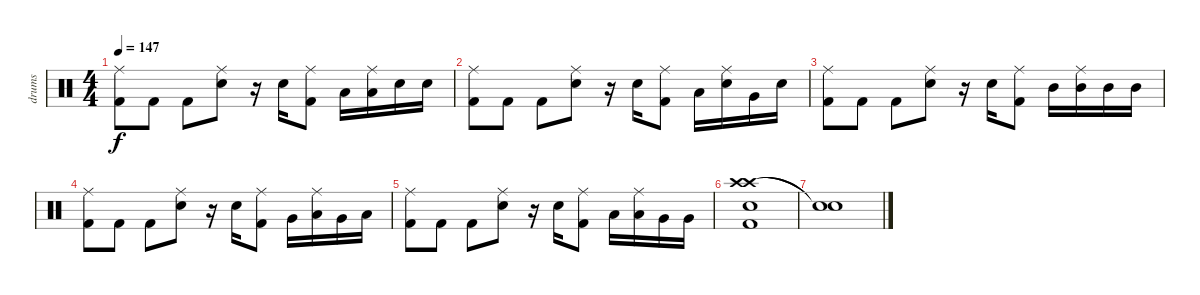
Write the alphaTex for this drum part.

\track ("drums" "drums") {instrument percussion}
\staff {score}
\articulation defaults
\ts (4 4)
\tempo 147
\clef neutral
\ks c
("Ride (middle)" "Kick (hit) 2").8{dy f} "Kick (hit) 2".8 "Kick (hit) 2".8 ("Ride (middle)" "Electric Snare (hit)").8 r.16 "Electric Snare (hit)".16 ("Ride (middle)" "Kick (hit) 2").8 "Low Tom (hit)".16 ("Ride (middle)" "Low Tom (hit)").16 "Electric Snare (hit)".16 "Electric Snare (hit)".16 |
("Ride (middle)" "Kick (hit) 2").8 "Kick (hit) 2".8 "Kick (hit) 2".8 ("Ride (middle)" "Electric Snare (hit)").8 r.16 "Electric Snare (hit)".16 ("Ride (middle)" "Kick (hit) 2").8 "Low Tom (hit)".16 ("Ride (middle)" "Electric Snare (hit)").16 "Very Low Tom (hit)".16 "Electric Snare (hit)".16 |
("Ride (middle)" "Kick (hit) 2").8 "Kick (hit) 2".8 "Kick (hit) 2".8 ("Ride (middle)" "Electric Snare (hit)").8 r.16 "Electric Snare (hit)".16 ("Ride (middle)" "Kick (hit) 2").8 "Mid Tom (hit)".16 ("Ride (middle)" "Mid Tom (hit)").16 "Mid Tom (hit)".16 "Mid Tom (hit)".16 |
("Ride (middle)" "Kick (hit) 2").8 "Kick (hit) 2".8 "Kick (hit) 2".8 ("Ride (middle)" "Electric Snare (hit)").8 r.16 "Electric Snare (hit)".16 ("Ride (middle)" "Kick (hit) 2").8 "Very Low Tom (hit)".16 ("Ride (middle)" "Low Tom (hit)").16 "Very Low Tom (hit)".16 "Low Tom (hit)".16 |
("Ride (middle)" "Kick (hit) 2").8 "Kick (hit) 2".8 "Kick (hit) 2".8 ("Ride (middle)" "Electric Snare (hit)").8 r.16 "Electric Snare (hit)".16 ("Ride (middle)" "Kick (hit) 2").8 "Low Tom (hit)".16 ("Ride (middle)" "Low Tom (hit)").16 "Very Low Tom (hit)".16 "Very Low Tom (hit)".16 |
("Crash high (hit)" "Crash high (hit)" "Electric Snare (hit)" "Kick (hit) 2").1 |
("Snare (hit)"{t} "Snare (hit)"{t}).1
